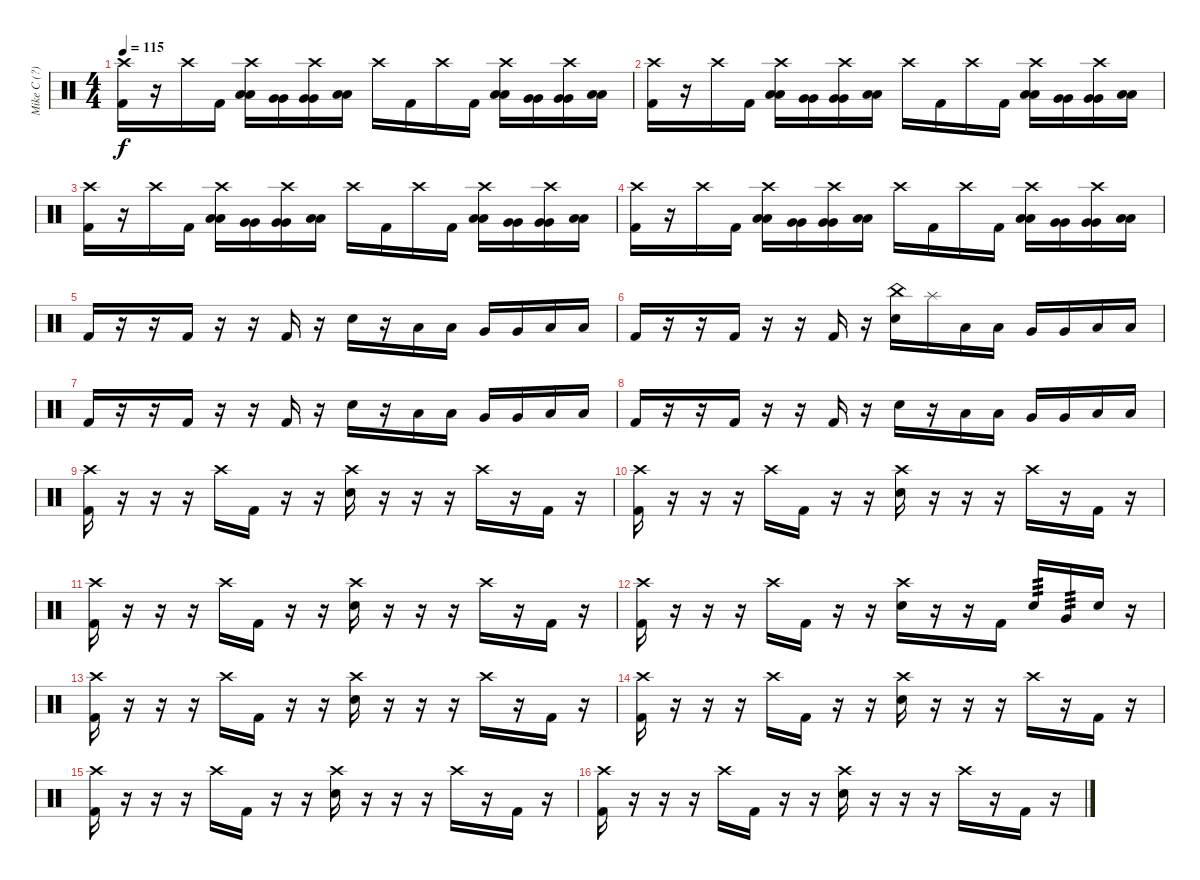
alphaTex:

\track ("Mike C (?)" "Mike C (?)") {instrument percussion}
\staff {score}
\articulation defaults
\ts (4 4)
\tempo 115
\clef neutral
\ks c
("Crash high (hit)" "Kick (hit) 2").16{dy f} r.16 "Crash high (hit)".16 "Kick (hit) 2".16 ("Crash high (hit)" "Low Tom (hit)" "Low Tom (hit)").16 ("Very Low Tom (hit)" "Very Low Tom (hit)").16 ("Crash high (hit)" "Very Low Tom (hit)" "Very Low Tom (hit)").16 ("Low Floor Tom (hit)" "Low Floor Tom (hit)").16 "Crash high (hit)".16 "Kick (hit) 2".16 "Crash high (hit)".16 "Kick (hit) 2".16 ("Crash high (hit)" "Low Tom (hit)" "Low Tom (hit)").16 ("Very Low Tom (hit)" "Very Low Tom (hit)").16 ("Crash high (hit)" "Very Low Tom (hit)" "Very Low Tom (hit)").16 ("Low Floor Tom (hit)" "Low Floor Tom (hit)").16 |
("Crash high (hit)" "Kick (hit) 2").16 r.16 "Crash high (hit)".16 "Kick (hit) 2".16 ("Crash high (hit)" "Low Tom (hit)" "Low Tom (hit)").16 ("Very Low Tom (hit)" "Very Low Tom (hit)").16 ("Crash high (hit)" "Very Low Tom (hit)" "Very Low Tom (hit)").16 ("Low Floor Tom (hit)" "Low Floor Tom (hit)").16 "Crash high (hit)".16 "Kick (hit) 2".16 "Crash high (hit)".16 "Kick (hit) 2".16 ("Crash high (hit)" "Low Tom (hit)" "Low Tom (hit)").16 ("Very Low Tom (hit)" "Very Low Tom (hit)").16 ("Crash high (hit)" "Very Low Tom (hit)" "Very Low Tom (hit)").16 ("Low Floor Tom (hit)" "Low Floor Tom (hit)").16 |
("Crash high (hit)" "Kick (hit) 2").16 r.16 "Crash high (hit)".16 "Kick (hit) 2".16 ("Crash high (hit)" "Low Tom (hit)" "Low Tom (hit)").16 ("Very Low Tom (hit)" "Very Low Tom (hit)").16 ("Crash high (hit)" "Very Low Tom (hit)" "Very Low Tom (hit)").16 ("Low Floor Tom (hit)" "Low Floor Tom (hit)").16 "Crash high (hit)".16 "Kick (hit) 2".16 "Crash high (hit)".16 "Kick (hit) 2".16 ("Crash high (hit)" "Low Tom (hit)" "Low Tom (hit)").16 ("Very Low Tom (hit)" "Very Low Tom (hit)").16 ("Crash high (hit)" "Very Low Tom (hit)" "Very Low Tom (hit)").16 ("Low Floor Tom (hit)" "Low Floor Tom (hit)").16 |
("Crash high (hit)" "Kick (hit) 2").16 r.16 "Crash high (hit)".16 "Kick (hit) 2".16 ("Crash high (hit)" "Low Tom (hit)" "Low Tom (hit)").16 ("Very Low Tom (hit)" "Very Low Tom (hit)").16 ("Crash high (hit)" "Very Low Tom (hit)" "Very Low Tom (hit)").16 ("Low Floor Tom (hit)" "Low Floor Tom (hit)").16 "Crash high (hit)".16 "Kick (hit) 2".16 "Crash high (hit)".16 "Kick (hit) 2".16 ("Crash high (hit)" "Low Tom (hit)" "Low Tom (hit)").16 ("Very Low Tom (hit)" "Very Low Tom (hit)").16 ("Crash high (hit)" "Very Low Tom (hit)" "Very Low Tom (hit)").16 ("Low Floor Tom (hit)" "Low Floor Tom (hit)").16 |
"Kick (hit) 2".16 r.16 r.16 "Kick (hit) 2".16 r.16 r.16 "Kick (hit) 2".16 r.16 "Snare (hit) 2".16 r.16 "Low Tom (hit)".16 "Low Tom (hit)".16 "Very Low Tom (hit)".16 "Very Low Tom (hit)".16 "Low Floor Tom (hit)".16 "Low Floor Tom (hit)".16 |
"Kick (hit) 2".16 r.16 r.16 "Kick (hit) 2".16 r.16 r.16 "Kick (hit) 2".16 r.16 ("China (hit)" "Snare (hit) 2").16 "Splash (hit)".16 "Low Tom (hit)".16 "Low Tom (hit)".16 "Very Low Tom (hit)".16 "Very Low Tom (hit)".16 "Low Floor Tom (hit)".16 "Low Floor Tom (hit)".16 |
"Kick (hit) 2".16 r.16 r.16 "Kick (hit) 2".16 r.16 r.16 "Kick (hit) 2".16 r.16 "Snare (hit) 2".16 r.16 "Low Tom (hit)".16 "Low Tom (hit)".16 "Very Low Tom (hit)".16 "Very Low Tom (hit)".16 "Low Floor Tom (hit)".16 "Low Floor Tom (hit)".16 |
"Kick (hit) 2".16 r.16 r.16 "Kick (hit) 2".16 r.16 r.16 "Kick (hit) 2".16 r.16 "Snare (hit) 2".16 r.16 "Low Tom (hit)".16 "Low Tom (hit)".16 "Very Low Tom (hit)".16 "Very Low Tom (hit)".16 "Low Floor Tom (hit)".16 "Low Floor Tom (hit)".16 |
("Crash high (hit)" "Kick (hit) 2").16 r.16 r.16 r.16 "Crash high (hit)".16 "Kick (hit) 2".16 r.16 r.16 ("Crash high (hit)" "Snare (hit) 2").16 r.16 r.16 r.16 "Crash high (hit)".16 r.16 "Kick (hit) 2".16 r.16 |
("Crash high (hit)" "Kick (hit) 2").16 r.16 r.16 r.16 "Crash high (hit)".16 "Kick (hit) 2".16 r.16 r.16 ("Crash high (hit)" "Snare (hit) 2").16 r.16 r.16 r.16 "Crash high (hit)".16 r.16 "Kick (hit) 2".16 r.16 |
("Crash high (hit)" "Kick (hit) 2").16 r.16 r.16 r.16 "Crash high (hit)".16 "Kick (hit) 2".16 r.16 r.16 ("Crash high (hit)" "Snare (hit) 2").16 r.16 r.16 r.16 "Crash high (hit)".16 r.16 "Kick (hit) 2".16 r.16 |
("Crash high (hit)" "Kick (hit) 2").16 r.16 r.16 r.16 "Crash high (hit)".16 "Kick (hit) 2".16 r.16 r.16 ("Crash high (hit)" "Snare (hit) 2").16 r.16 r.16 "Kick (hit) 2".16 "Electric Snare (hit)".16{tp 3} "Very Low Tom (hit)".16{tp 3} "Snare (hit) 2".16 r.16 |
("Crash high (hit)" "Kick (hit) 2").16 r.16 r.16 r.16 "Crash high (hit)".16 "Kick (hit) 2".16 r.16 r.16 ("Crash high (hit)" "Snare (hit) 2").16 r.16 r.16 r.16 "Crash high (hit)".16 r.16 "Kick (hit) 2".16 r.16 |
("Crash high (hit)" "Kick (hit) 2").16 r.16 r.16 r.16 "Crash high (hit)".16 "Kick (hit) 2".16 r.16 r.16 ("Crash high (hit)" "Snare (hit) 2").16 r.16 r.16 r.16 "Crash high (hit)".16 r.16 "Kick (hit) 2".16 r.16 |
("Crash high (hit)" "Kick (hit) 2").16 r.16 r.16 r.16 "Crash high (hit)".16 "Kick (hit) 2".16 r.16 r.16 ("Crash high (hit)" "Snare (hit) 2").16 r.16 r.16 r.16 "Crash high (hit)".16 r.16 "Kick (hit) 2".16 r.16 |
("Crash high (hit)" "Kick (hit) 2").16 r.16 r.16 r.16 "Crash high (hit)".16 "Kick (hit) 2".16 r.16 r.16 ("Crash high (hit)" "Snare (hit) 2").16 r.16 r.16 r.16 "Crash high (hit)".16 r.16 "Kick (hit) 2".16 r.16
